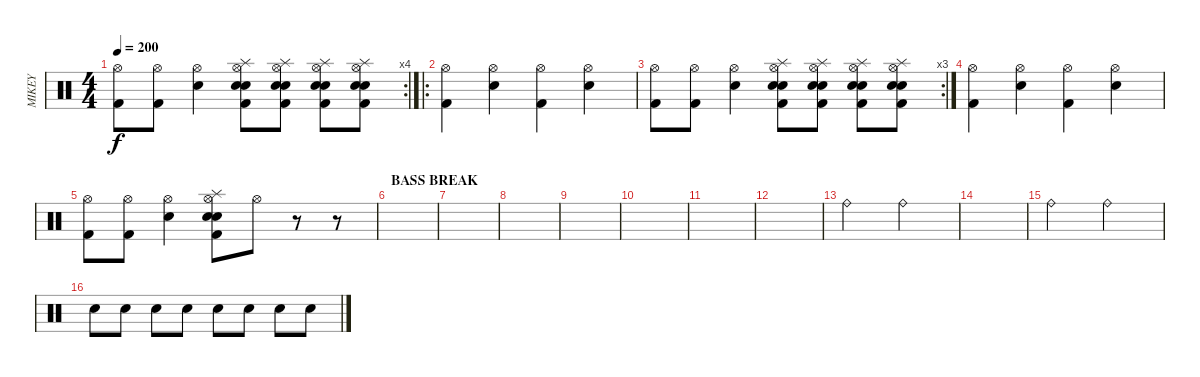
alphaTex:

\track ("MIKEY" "MIKEY") {instrument percussion}
\staff {score}
\articulation defaults
\rc 4
\ts (4 4)
\tempo 200
\clef neutral
\ks c
("Hi-Hat (open)" "Kick (hit) 2").8{dy f} ("Hi-Hat (open)" "Kick (hit) 2").8 ("Hi-Hat (open)" "Snare (hit) 2").4 ("Splash (hit)" "Electric Snare (hit)" "Snare (hit) 2" "Hi-Hat (open)" "Kick (hit) 2").8 ("Splash (hit)" "Electric Snare (hit)" "Snare (hit) 2" "Hi-Hat (open)" "Kick (hit) 2").8 ("Splash (hit)" "Electric Snare (hit)" "Snare (hit) 2" "Hi-Hat (open)" "Kick (hit) 2").8 ("Splash (hit)" "Electric Snare (hit)" "Snare (hit) 2" "Hi-Hat (open)" "Kick (hit) 2").8 |
\ro
("Hi-Hat (open)" "Kick (hit) 2").4 ("Hi-Hat (open)" "Snare (hit) 2").4 ("Hi-Hat (open)" "Kick (hit) 2").4 ("Hi-Hat (open)" "Snare (hit) 2").4 |
\rc 3
("Hi-Hat (open)" "Kick (hit) 2").8 ("Hi-Hat (open)" "Kick (hit) 2").8 ("Hi-Hat (open)" "Snare (hit) 2").4 ("Splash (hit)" "Electric Snare (hit)" "Snare (hit) 2" "Hi-Hat (open)" "Kick (hit) 2").8 ("Splash (hit)" "Electric Snare (hit)" "Snare (hit) 2" "Hi-Hat (open)" "Kick (hit) 2").8 ("Splash (hit)" "Electric Snare (hit)" "Snare (hit) 2" "Hi-Hat (open)" "Kick (hit) 2").8 ("Splash (hit)" "Electric Snare (hit)" "Snare (hit) 2" "Hi-Hat (open)" "Kick (hit) 2").8 |
("Hi-Hat (open)" "Kick (hit) 2").4 ("Hi-Hat (open)" "Snare (hit) 2").4 ("Hi-Hat (open)" "Kick (hit) 2").4 ("Hi-Hat (open)" "Snare (hit) 2").4 |
("Hi-Hat (open)" "Kick (hit) 2").8 ("Hi-Hat (open)" "Kick (hit) 2").8 ("Hi-Hat (open)" "Snare (hit) 2").4 ("Splash (hit)" "Electric Snare (hit)" "Snare (hit) 2" "Hi-Hat (open)" "Kick (hit) 2").8 "Hi-Hat (open)".8 r.8 r.8 |
\section ("" "BASS BREAK")
|
|
|
|
|
|
|
"Ride (bell)".2 "Ride (bell)".2 |
|
"Ride (bell)".2 "Ride (bell)".2 |
"Electric Snare (hit)".8 "Electric Snare (hit)".8 "Electric Snare (hit)".8 "Electric Snare (hit)".8 "Snare (hit) 2".8 "Snare (hit) 2".8 "Snare (hit) 2".8 "Snare (hit) 2".8
